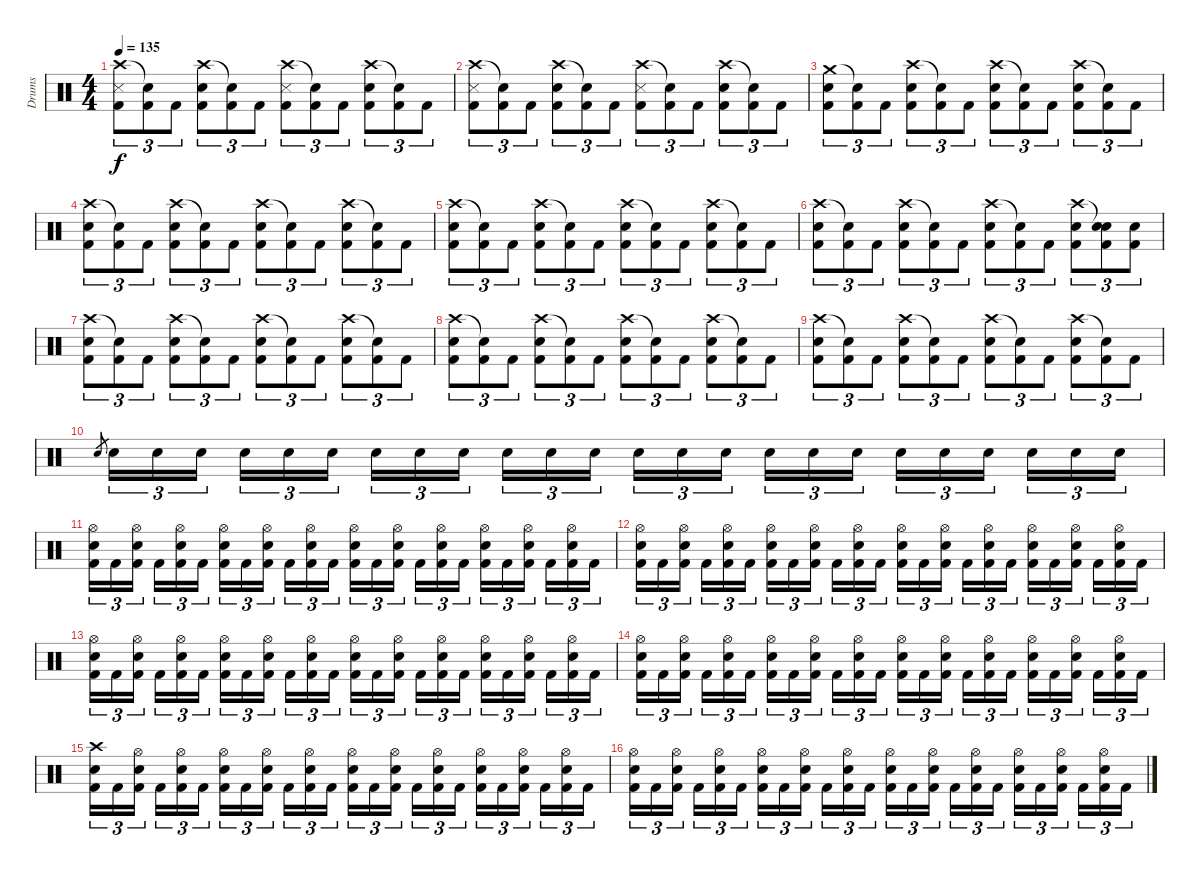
\track ("Drums" "Drums") {instrument percussion}
\staff {score}
\articulation defaults
\ts (4 4)
\tempo 135
\clef neutral
\ks c
("Crash high (hit)" "Snare (side stick) 3" "Kick (hit) 2").8{tu (3 2) dy f} ("Snare (hit)"{t} "Kick (hit) 2").8{tu (3 2)} "Kick (hit) 2".8{tu (3 2)} ("Crash high (hit)" "Electric Snare (hit)" "Kick (hit) 2").8{tu (3 2)} ("Snare (hit)"{t} "Kick (hit) 2").8{tu (3 2)} "Kick (hit) 2".8{tu (3 2)} ("Crash high (hit)" "Snare (side stick) 3" "Kick (hit) 2").8{tu (3 2)} ("Snare (hit)"{t} "Kick (hit) 2").8{tu (3 2)} "Kick (hit) 2".8{tu (3 2)} ("Crash high (hit)" "Electric Snare (hit)" "Kick (hit) 2").8{tu (3 2)} ("Snare (hit)"{t} "Kick (hit) 2").8{tu (3 2)} "Kick (hit) 2".8{tu (3 2)} |
("Crash high (hit)" "Snare (side stick) 3" "Kick (hit) 2").8{tu (3 2)} ("Snare (hit)"{t} "Kick (hit) 2").8{tu (3 2)} "Kick (hit) 2".8{tu (3 2)} ("Crash high (hit)" "Electric Snare (hit)" "Kick (hit) 2").8{tu (3 2)} ("Snare (hit)"{t} "Kick (hit) 2").8{tu (3 2)} "Kick (hit) 2".8{tu (3 2)} ("Crash high (hit)" "Snare (side stick) 3" "Kick (hit) 2").8{tu (3 2)} ("Snare (hit)"{t} "Kick (hit) 2").8{tu (3 2)} "Kick (hit) 2".8{tu (3 2)} ("Crash high (hit)" "Electric Snare (hit)" "Kick (hit) 2").8{tu (3 2)} ("Snare (hit)"{t} "Kick (hit) 2").8{tu (3 2)} "Kick (hit) 2".8{tu (3 2)} |
("Crash medium (hit)" "Electric Snare (hit)" "Kick (hit) 2").8{tu (3 2)} ("Snare (hit)"{t} "Kick (hit) 2").8{tu (3 2)} "Kick (hit) 2".8{tu (3 2)} ("Crash high (hit)" "Electric Snare (hit)" "Kick (hit) 2").8{tu (3 2)} ("Snare (hit)"{t} "Kick (hit) 2").8{tu (3 2)} "Kick (hit) 2".8{tu (3 2)} ("Crash high (hit)" "Electric Snare (hit)" "Kick (hit) 2").8{tu (3 2)} ("Snare (hit)"{t} "Kick (hit) 2").8{tu (3 2)} "Kick (hit) 2".8{tu (3 2)} ("Crash high (hit)" "Electric Snare (hit)" "Kick (hit) 2").8{tu (3 2)} ("Snare (hit)"{t} "Kick (hit) 2").8{tu (3 2)} "Kick (hit) 2".8{tu (3 2)} |
("Crash high (hit)" "Electric Snare (hit)" "Kick (hit) 2").8{tu (3 2)} ("Snare (hit)"{t} "Kick (hit) 2").8{tu (3 2)} "Kick (hit) 2".8{tu (3 2)} ("Crash high (hit)" "Electric Snare (hit)" "Kick (hit) 2").8{tu (3 2)} ("Snare (hit)"{t} "Kick (hit) 2").8{tu (3 2)} "Kick (hit) 2".8{tu (3 2)} ("Crash high (hit)" "Electric Snare (hit)" "Kick (hit) 2").8{tu (3 2)} ("Snare (hit)"{t} "Kick (hit) 2").8{tu (3 2)} "Kick (hit) 2".8{tu (3 2)} ("Crash high (hit)" "Electric Snare (hit)" "Kick (hit) 2").8{tu (3 2)} ("Snare (hit)"{t} "Kick (hit) 2").8{tu (3 2)} "Kick (hit) 2".8{tu (3 2)} |
("Crash high (hit)" "Electric Snare (hit)" "Kick (hit) 2").8{tu (3 2)} ("Snare (hit)"{t} "Kick (hit) 2").8{tu (3 2)} "Kick (hit) 2".8{tu (3 2)} ("Crash high (hit)" "Electric Snare (hit)" "Kick (hit) 2").8{tu (3 2)} ("Snare (hit)"{t} "Kick (hit) 2").8{tu (3 2)} "Kick (hit) 2".8{tu (3 2)} ("Crash high (hit)" "Electric Snare (hit)" "Kick (hit) 2").8{tu (3 2)} ("Snare (hit)"{t} "Kick (hit) 2").8{tu (3 2)} "Kick (hit) 2".8{tu (3 2)} ("Crash high (hit)" "Electric Snare (hit)" "Kick (hit) 2").8{tu (3 2)} ("Snare (hit)"{t} "Kick (hit) 2").8{tu (3 2)} "Kick (hit) 2".8{tu (3 2)} |
("Crash high (hit)" "Electric Snare (hit)" "Kick (hit) 2").8{tu (3 2)} ("Snare (hit)"{t} "Kick (hit) 2").8{tu (3 2)} "Kick (hit) 2".8{tu (3 2)} ("Crash high (hit)" "Electric Snare (hit)" "Kick (hit) 2").8{tu (3 2)} ("Snare (hit)"{t} "Kick (hit) 2").8{tu (3 2)} "Kick (hit) 2".8{tu (3 2)} ("Crash high (hit)" "Electric Snare (hit)" "Kick (hit) 2").8{tu (3 2)} ("Snare (hit)"{t} "Kick (hit) 2").8{tu (3 2)} "Kick (hit) 2".8{tu (3 2)} ("Crash high (hit)" "Electric Snare (hit)" "Kick (hit) 2").8{tu (3 2)} ("Snare (hit)"{t} "Electric Snare (hit)" "Kick (hit) 2").8{tu (3 2)} ("Electric Snare (hit)" "Kick (hit) 2").8{tu (3 2)} |
("Crash high (hit)" "Electric Snare (hit)" "Kick (hit) 2").8{tu (3 2)} ("Snare (hit)"{t} "Kick (hit) 2").8{tu (3 2)} "Kick (hit) 2".8{tu (3 2)} ("Crash high (hit)" "Electric Snare (hit)" "Kick (hit) 2").8{tu (3 2)} ("Snare (hit)"{t} "Kick (hit) 2").8{tu (3 2)} "Kick (hit) 2".8{tu (3 2)} ("Crash high (hit)" "Electric Snare (hit)" "Kick (hit) 2").8{tu (3 2)} ("Snare (hit)"{t} "Kick (hit) 2").8{tu (3 2)} "Kick (hit) 2".8{tu (3 2)} ("Crash high (hit)" "Electric Snare (hit)" "Kick (hit) 2").8{tu (3 2)} ("Snare (hit)"{t} "Kick (hit) 2").8{tu (3 2)} "Kick (hit) 2".8{tu (3 2)} |
("Crash high (hit)" "Electric Snare (hit)" "Kick (hit) 2").8{tu (3 2)} ("Snare (hit)"{t} "Kick (hit) 2").8{tu (3 2)} "Kick (hit) 2".8{tu (3 2)} ("Crash high (hit)" "Electric Snare (hit)" "Kick (hit) 2").8{tu (3 2)} ("Snare (hit)"{t} "Kick (hit) 2").8{tu (3 2)} "Kick (hit) 2".8{tu (3 2)} ("Crash high (hit)" "Electric Snare (hit)" "Kick (hit) 2").8{tu (3 2)} ("Snare (hit)"{t} "Kick (hit) 2").8{tu (3 2)} "Kick (hit) 2".8{tu (3 2)} ("Crash high (hit)" "Electric Snare (hit)" "Kick (hit) 2").8{tu (3 2)} ("Snare (hit)"{t} "Kick (hit) 2").8{tu (3 2)} "Kick (hit) 2".8{tu (3 2)} |
("Crash high (hit)" "Electric Snare (hit)" "Kick (hit) 2").8{tu (3 2)} ("Snare (hit)"{t} "Kick (hit) 2").8{tu (3 2)} "Kick (hit) 2".8{tu (3 2)} ("Crash high (hit)" "Electric Snare (hit)" "Kick (hit) 2").8{tu (3 2)} ("Snare (hit)"{t} "Kick (hit) 2").8{tu (3 2)} "Kick (hit) 2".8{tu (3 2)} ("Crash high (hit)" "Electric Snare (hit)" "Kick (hit) 2").8{tu (3 2)} ("Snare (hit)"{t} "Kick (hit) 2").8{tu (3 2)} "Kick (hit) 2".8{tu (3 2)} ("Crash high (hit)" "Electric Snare (hit)" "Kick (hit) 2").8{tu (3 2)} ("Snare (hit)"{t} "Kick (hit) 2").8{tu (3 2)} "Kick (hit) 2".8{tu (3 2)} |
"Electric Snare (hit)".8{gr} "Electric Snare (hit)".16{tu (3 2)} "Electric Snare (hit)".16{tu (3 2)} "Electric Snare (hit)".16{tu (3 2)} "Electric Snare (hit)".16{tu (3 2)} "Electric Snare (hit)".16{tu (3 2)} "Electric Snare (hit)".16{tu (3 2)} "Electric Snare (hit)".16{tu (3 2)} "Electric Snare (hit)".16{tu (3 2)} "Electric Snare (hit)".16{tu (3 2)} "Electric Snare (hit)".16{tu (3 2)} "Electric Snare (hit)".16{tu (3 2)} "Electric Snare (hit)".16{tu (3 2)} "Electric Snare (hit)".16{tu (3 2)} "Electric Snare (hit)".16{tu (3 2)} "Electric Snare (hit)".16{tu (3 2)} "Electric Snare (hit)".16{tu (3 2)} "Electric Snare (hit)".16{tu (3 2)} "Electric Snare (hit)".16{tu (3 2)} "Electric Snare (hit)".16{tu (3 2)} "Electric Snare (hit)".16{tu (3 2)} "Electric Snare (hit)".16{tu (3 2)} "Electric Snare (hit)".16{tu (3 2)} "Electric Snare (hit)".16{tu (3 2)} "Electric Snare (hit)".16{tu (3 2)} |
("Hi-Hat (open)" "Electric Snare (hit)" "Kick (hit) 2").16{tu (3 2)} "Kick (hit) 2".16{tu (3 2)} ("Hi-Hat (open)" "Electric Snare (hit)" "Kick (hit) 2").16{tu (3 2)} "Kick (hit) 2".16{tu (3 2)} ("Hi-Hat (open)" "Electric Snare (hit)" "Kick (hit) 2").16{tu (3 2)} "Kick (hit) 2".16{tu (3 2)} ("Hi-Hat (open)" "Electric Snare (hit)" "Kick (hit) 2").16{tu (3 2)} "Kick (hit) 2".16{tu (3 2)} ("Hi-Hat (open)" "Electric Snare (hit)" "Kick (hit) 2").16{tu (3 2)} "Kick (hit) 2".16{tu (3 2)} ("Hi-Hat (open)" "Electric Snare (hit)" "Kick (hit) 2").16{tu (3 2)} "Kick (hit) 2".16{tu (3 2)} ("Hi-Hat (open)" "Electric Snare (hit)" "Kick (hit) 2").16{tu (3 2)} "Kick (hit) 2".16{tu (3 2)} ("Hi-Hat (open)" "Electric Snare (hit)" "Kick (hit) 2").16{tu (3 2)} "Kick (hit) 2".16{tu (3 2)} ("Hi-Hat (open)" "Electric Snare (hit)" "Kick (hit) 2").16{tu (3 2)} "Kick (hit) 2".16{tu (3 2)} ("Hi-Hat (open)" "Electric Snare (hit)" "Kick (hit) 2").16{tu (3 2)} "Kick (hit) 2".16{tu (3 2)} ("Hi-Hat (open)" "Electric Snare (hit)" "Kick (hit) 2").16{tu (3 2)} "Kick (hit) 2".16{tu (3 2)} ("Hi-Hat (open)" "Electric Snare (hit)" "Kick (hit) 2").16{tu (3 2)} "Kick (hit) 2".16{tu (3 2)} |
("Hi-Hat (open)" "Electric Snare (hit)" "Kick (hit) 2").16{tu (3 2)} "Kick (hit) 2".16{tu (3 2)} ("Hi-Hat (open)" "Electric Snare (hit)" "Kick (hit) 2").16{tu (3 2)} "Kick (hit) 2".16{tu (3 2)} ("Hi-Hat (open)" "Electric Snare (hit)" "Kick (hit) 2").16{tu (3 2)} "Kick (hit) 2".16{tu (3 2)} ("Hi-Hat (open)" "Electric Snare (hit)" "Kick (hit) 2").16{tu (3 2)} "Kick (hit) 2".16{tu (3 2)} ("Hi-Hat (open)" "Electric Snare (hit)" "Kick (hit) 2").16{tu (3 2)} "Kick (hit) 2".16{tu (3 2)} ("Hi-Hat (open)" "Electric Snare (hit)" "Kick (hit) 2").16{tu (3 2)} "Kick (hit) 2".16{tu (3 2)} ("Hi-Hat (open)" "Electric Snare (hit)" "Kick (hit) 2").16{tu (3 2)} "Kick (hit) 2".16{tu (3 2)} ("Hi-Hat (open)" "Electric Snare (hit)" "Kick (hit) 2").16{tu (3 2)} "Kick (hit) 2".16{tu (3 2)} ("Hi-Hat (open)" "Electric Snare (hit)" "Kick (hit) 2").16{tu (3 2)} "Kick (hit) 2".16{tu (3 2)} ("Hi-Hat (open)" "Electric Snare (hit)" "Kick (hit) 2").16{tu (3 2)} "Kick (hit) 2".16{tu (3 2)} ("Hi-Hat (open)" "Electric Snare (hit)" "Kick (hit) 2").16{tu (3 2)} "Kick (hit) 2".16{tu (3 2)} ("Hi-Hat (open)" "Electric Snare (hit)" "Kick (hit) 2").16{tu (3 2)} "Kick (hit) 2".16{tu (3 2)} |
("Hi-Hat (open)" "Electric Snare (hit)" "Kick (hit) 2").16{tu (3 2)} "Kick (hit) 2".16{tu (3 2)} ("Hi-Hat (open)" "Electric Snare (hit)" "Kick (hit) 2").16{tu (3 2)} "Kick (hit) 2".16{tu (3 2)} ("Hi-Hat (open)" "Electric Snare (hit)" "Kick (hit) 2").16{tu (3 2)} "Kick (hit) 2".16{tu (3 2)} ("Hi-Hat (open)" "Electric Snare (hit)" "Kick (hit) 2").16{tu (3 2)} "Kick (hit) 2".16{tu (3 2)} ("Hi-Hat (open)" "Electric Snare (hit)" "Kick (hit) 2").16{tu (3 2)} "Kick (hit) 2".16{tu (3 2)} ("Hi-Hat (open)" "Electric Snare (hit)" "Kick (hit) 2").16{tu (3 2)} "Kick (hit) 2".16{tu (3 2)} ("Hi-Hat (open)" "Electric Snare (hit)" "Kick (hit) 2").16{tu (3 2)} "Kick (hit) 2".16{tu (3 2)} ("Hi-Hat (open)" "Electric Snare (hit)" "Kick (hit) 2").16{tu (3 2)} "Kick (hit) 2".16{tu (3 2)} ("Hi-Hat (open)" "Electric Snare (hit)" "Kick (hit) 2").16{tu (3 2)} "Kick (hit) 2".16{tu (3 2)} ("Hi-Hat (open)" "Electric Snare (hit)" "Kick (hit) 2").16{tu (3 2)} "Kick (hit) 2".16{tu (3 2)} ("Hi-Hat (open)" "Electric Snare (hit)" "Kick (hit) 2").16{tu (3 2)} "Kick (hit) 2".16{tu (3 2)} ("Hi-Hat (open)" "Electric Snare (hit)" "Kick (hit) 2").16{tu (3 2)} "Kick (hit) 2".16{tu (3 2)} |
("Hi-Hat (open)" "Electric Snare (hit)" "Kick (hit) 2").16{tu (3 2)} "Kick (hit) 2".16{tu (3 2)} ("Hi-Hat (open)" "Electric Snare (hit)" "Kick (hit) 2").16{tu (3 2)} "Kick (hit) 2".16{tu (3 2)} ("Hi-Hat (open)" "Electric Snare (hit)" "Kick (hit) 2").16{tu (3 2)} "Kick (hit) 2".16{tu (3 2)} ("Hi-Hat (open)" "Electric Snare (hit)" "Kick (hit) 2").16{tu (3 2)} "Kick (hit) 2".16{tu (3 2)} ("Hi-Hat (open)" "Electric Snare (hit)" "Kick (hit) 2").16{tu (3 2)} "Kick (hit) 2".16{tu (3 2)} ("Hi-Hat (open)" "Electric Snare (hit)" "Kick (hit) 2").16{tu (3 2)} "Kick (hit) 2".16{tu (3 2)} ("Hi-Hat (open)" "Electric Snare (hit)" "Kick (hit) 2").16{tu (3 2)} "Kick (hit) 2".16{tu (3 2)} ("Hi-Hat (open)" "Electric Snare (hit)" "Kick (hit) 2").16{tu (3 2)} "Kick (hit) 2".16{tu (3 2)} ("Hi-Hat (open)" "Electric Snare (hit)" "Kick (hit) 2").16{tu (3 2)} "Kick (hit) 2".16{tu (3 2)} ("Hi-Hat (open)" "Electric Snare (hit)" "Kick (hit) 2").16{tu (3 2)} "Kick (hit) 2".16{tu (3 2)} ("Hi-Hat (open)" "Electric Snare (hit)" "Kick (hit) 2").16{tu (3 2)} "Kick (hit) 2".16{tu (3 2)} ("Hi-Hat (open)" "Electric Snare (hit)" "Kick (hit) 2").16{tu (3 2)} "Kick (hit) 2".16{tu (3 2)} |
("Crash high (hit)" "Electric Snare (hit)" "Kick (hit) 2").16{tu (3 2)} "Kick (hit) 2".16{tu (3 2)} ("Hi-Hat (open)" "Electric Snare (hit)" "Kick (hit) 2").16{tu (3 2)} "Kick (hit) 2".16{tu (3 2)} ("Hi-Hat (open)" "Electric Snare (hit)" "Kick (hit) 2").16{tu (3 2)} "Kick (hit) 2".16{tu (3 2)} ("Hi-Hat (open)" "Electric Snare (hit)" "Kick (hit) 2").16{tu (3 2)} "Kick (hit) 2".16{tu (3 2)} ("Hi-Hat (open)" "Electric Snare (hit)" "Kick (hit) 2").16{tu (3 2)} "Kick (hit) 2".16{tu (3 2)} ("Hi-Hat (open)" "Electric Snare (hit)" "Kick (hit) 2").16{tu (3 2)} "Kick (hit) 2".16{tu (3 2)} ("Hi-Hat (open)" "Electric Snare (hit)" "Kick (hit) 2").16{tu (3 2)} "Kick (hit) 2".16{tu (3 2)} ("Hi-Hat (open)" "Electric Snare (hit)" "Kick (hit) 2").16{tu (3 2)} "Kick (hit) 2".16{tu (3 2)} ("Hi-Hat (open)" "Electric Snare (hit)" "Kick (hit) 2").16{tu (3 2)} "Kick (hit) 2".16{tu (3 2)} ("Hi-Hat (open)" "Electric Snare (hit)" "Kick (hit) 2").16{tu (3 2)} "Kick (hit) 2".16{tu (3 2)} ("Hi-Hat (open)" "Electric Snare (hit)" "Kick (hit) 2").16{tu (3 2)} "Kick (hit) 2".16{tu (3 2)} ("Hi-Hat (open)" "Electric Snare (hit)" "Kick (hit) 2").16{tu (3 2)} "Kick (hit) 2".16{tu (3 2)} |
("Hi-Hat (open)" "Electric Snare (hit)" "Kick (hit) 2").16{tu (3 2)} "Kick (hit) 2".16{tu (3 2)} ("Hi-Hat (open)" "Electric Snare (hit)" "Kick (hit) 2").16{tu (3 2)} "Kick (hit) 2".16{tu (3 2)} ("Hi-Hat (open)" "Electric Snare (hit)" "Kick (hit) 2").16{tu (3 2)} "Kick (hit) 2".16{tu (3 2)} ("Hi-Hat (open)" "Electric Snare (hit)" "Kick (hit) 2").16{tu (3 2)} "Kick (hit) 2".16{tu (3 2)} ("Hi-Hat (open)" "Electric Snare (hit)" "Kick (hit) 2").16{tu (3 2)} "Kick (hit) 2".16{tu (3 2)} ("Hi-Hat (open)" "Electric Snare (hit)" "Kick (hit) 2").16{tu (3 2)} "Kick (hit) 2".16{tu (3 2)} ("Hi-Hat (open)" "Electric Snare (hit)" "Kick (hit) 2").16{tu (3 2)} "Kick (hit) 2".16{tu (3 2)} ("Hi-Hat (open)" "Electric Snare (hit)" "Kick (hit) 2").16{tu (3 2)} "Kick (hit) 2".16{tu (3 2)} ("Hi-Hat (open)" "Electric Snare (hit)" "Kick (hit) 2").16{tu (3 2)} "Kick (hit) 2".16{tu (3 2)} ("Hi-Hat (open)" "Electric Snare (hit)" "Kick (hit) 2").16{tu (3 2)} "Kick (hit) 2".16{tu (3 2)} ("Hi-Hat (open)" "Electric Snare (hit)" "Kick (hit) 2").16{tu (3 2)} "Kick (hit) 2".16{tu (3 2)} ("Hi-Hat (open)" "Electric Snare (hit)" "Kick (hit) 2").16{tu (3 2)} "Kick (hit) 2".16{tu (3 2)}
